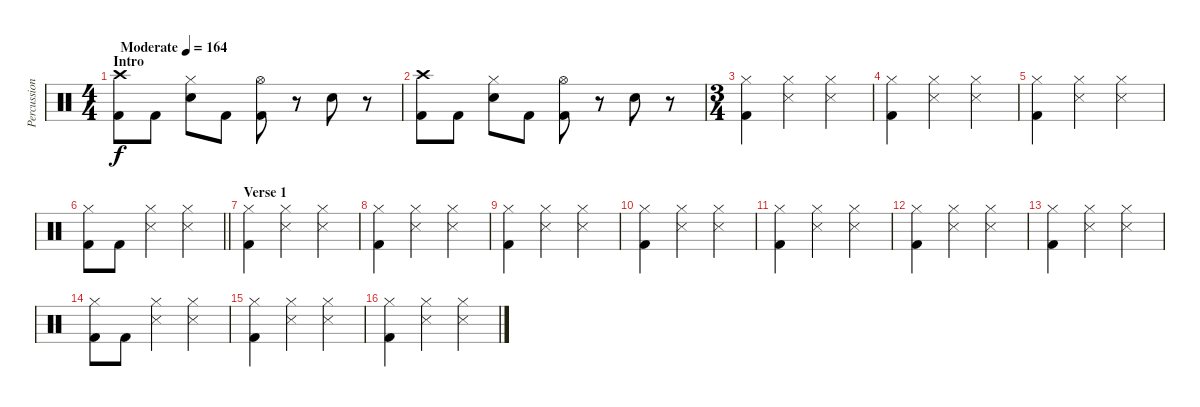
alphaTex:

\track ("Percussion" "Percussion") {instrument percussion}
\staff {score}
\articulation defaults
\ts (4 4)
\section ("" "Intro")
\tempo (164 "Moderate")
\clef neutral
\ks c
("Kick (hit) 2" "Crash high (hit)").8{dy f} "Kick (hit) 2".8 ("Snare (hit) 2" "Hi-Hat (closed)").8 "Kick (hit) 2".8 ("Kick (hit) 2" "Hi-Hat (open)").8 r.8 "Snare (hit) 2".8 r.8 |
("Kick (hit) 2" "Crash high (hit)").8 "Kick (hit) 2".8 ("Snare (hit) 2" "Hi-Hat (closed)").8 "Kick (hit) 2".8 ("Kick (hit) 2" "Hi-Hat (open)").8 r.8 "Snare (hit) 2".8 r.8 |
\ts (3 4)
("Kick (hit) 2" "Hi-Hat (closed)").4 ("Hi-Hat (closed)" "Snare (side stick) 3").4 ("Hi-Hat (closed)" "Snare (side stick) 3").4 |
("Kick (hit) 2" "Hi-Hat (closed)").4 ("Hi-Hat (closed)" "Snare (side stick) 3").4 ("Hi-Hat (closed)" "Snare (side stick) 3").4 |
("Kick (hit) 2" "Hi-Hat (closed)").4 ("Hi-Hat (closed)" "Snare (side stick) 3").4 ("Hi-Hat (closed)" "Snare (side stick) 3").4 |
\barLineRight lightlight
("Kick (hit) 2" "Hi-Hat (closed)").8 "Kick (hit) 2".8 ("Hi-Hat (closed)" "Snare (side stick) 3").4 ("Hi-Hat (closed)" "Snare (side stick) 3").4 |
\section ("" "Verse 1")
("Kick (hit) 2" "Hi-Hat (closed)").4 ("Hi-Hat (closed)" "Snare (side stick) 3").4 ("Hi-Hat (closed)" "Snare (side stick) 3").4 |
("Kick (hit) 2" "Hi-Hat (closed)").4 ("Hi-Hat (closed)" "Snare (side stick) 3").4 ("Hi-Hat (closed)" "Snare (side stick) 3").4 |
("Kick (hit) 2" "Hi-Hat (closed)").4 ("Hi-Hat (closed)" "Snare (side stick) 3").4 ("Hi-Hat (closed)" "Snare (side stick) 3").4 |
("Kick (hit) 2" "Hi-Hat (closed)").4 ("Hi-Hat (closed)" "Snare (side stick) 3").4 ("Hi-Hat (closed)" "Snare (side stick) 3").4 |
("Kick (hit) 2" "Hi-Hat (closed)").4 ("Hi-Hat (closed)" "Snare (side stick) 3").4 ("Hi-Hat (closed)" "Snare (side stick) 3").4 |
("Kick (hit) 2" "Hi-Hat (closed)").4 ("Hi-Hat (closed)" "Snare (side stick) 3").4 ("Hi-Hat (closed)" "Snare (side stick) 3").4 |
("Kick (hit) 2" "Hi-Hat (closed)").4 ("Hi-Hat (closed)" "Snare (side stick) 3").4 ("Hi-Hat (closed)" "Snare (side stick) 3").4 |
("Kick (hit) 2" "Hi-Hat (closed)").8 "Kick (hit) 2".8 ("Hi-Hat (closed)" "Snare (side stick) 3").4 ("Hi-Hat (closed)" "Snare (side stick) 3").4 |
("Kick (hit) 2" "Hi-Hat (closed)").4 ("Hi-Hat (closed)" "Snare (side stick) 3").4 ("Hi-Hat (closed)" "Snare (side stick) 3").4 |
("Kick (hit) 2" "Hi-Hat (closed)").4 ("Hi-Hat (closed)" "Snare (side stick) 3").4 ("Hi-Hat (closed)" "Snare (side stick) 3").4
